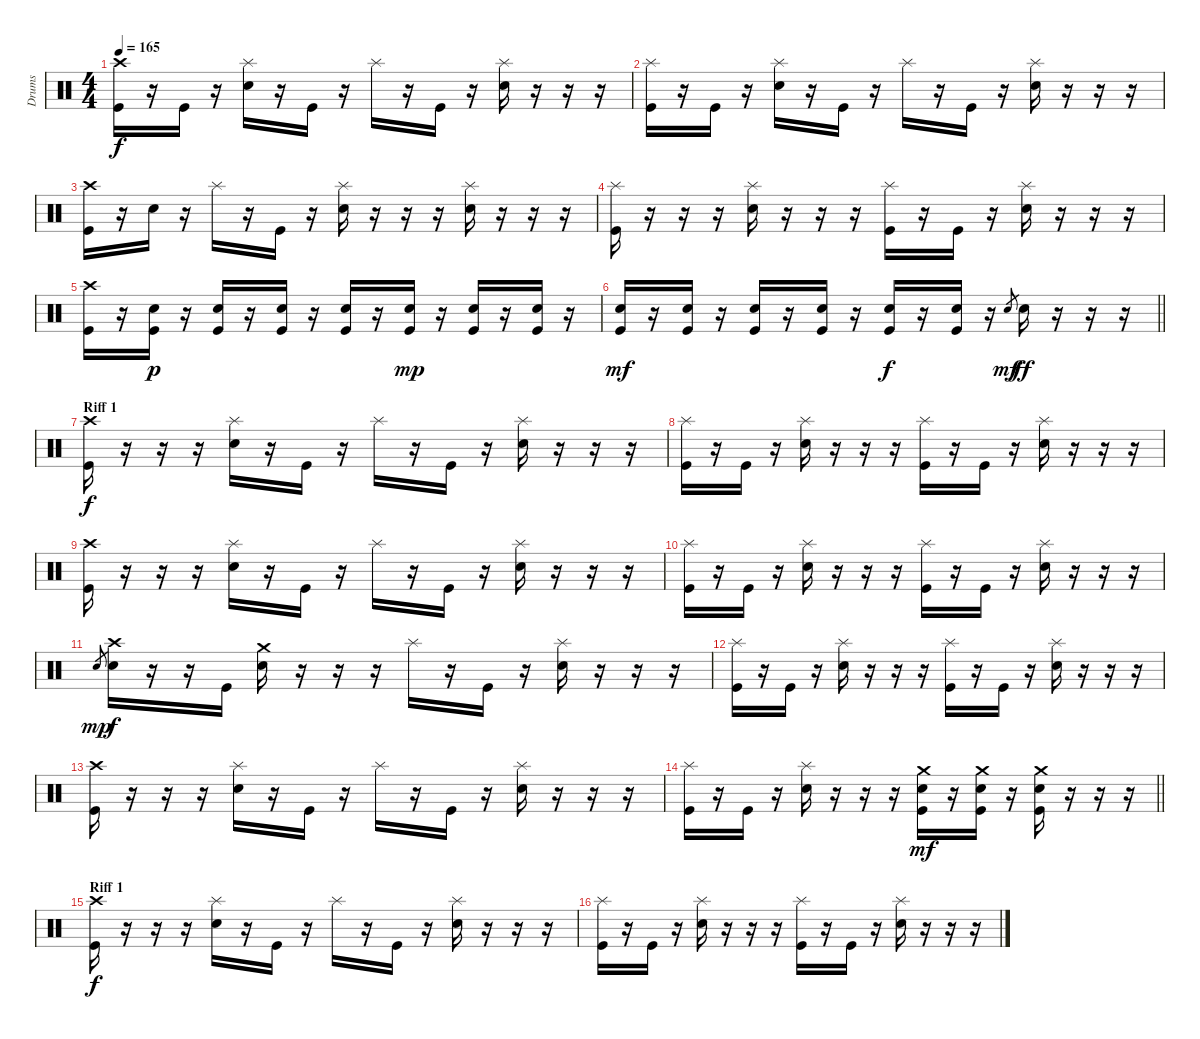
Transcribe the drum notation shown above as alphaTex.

\track ("Drums" "Drums") {instrument percussion}
\staff {score}
\articulation defaults
\ts (4 4)
\tempo 165
\clef neutral
\ks c
("Crash high (hit)" "Kick (hit)").16{dy f} r.16 "Kick (hit)".16 r.16 ("Splash (hit)" "Electric Snare (hit)").16 r.16 "Kick (hit)".16 r.16 "Splash (hit)".16 r.16 "Kick (hit)".16 r.16 ("Splash (hit)" "Electric Snare (hit)").16 r.16 r.16 r.16 |
("Splash (hit)" "Kick (hit)").16 r.16 "Kick (hit)".16 r.16 ("Splash (hit)" "Electric Snare (hit)").16 r.16 "Kick (hit)".16 r.16 "Splash (hit)".16 r.16 "Kick (hit)".16 r.16 ("Splash (hit)" "Electric Snare (hit)").16 r.16 r.16 r.16 |
("Crash high (hit)" "Kick (hit)").16 r.16 "Electric Snare (hit)".16 r.16 "Splash (hit)".16 r.16 "Kick (hit)".16 r.16 ("Splash (hit)" "Electric Snare (hit)").16 r.16 r.16 r.16 ("Splash (hit)" "Electric Snare (hit)").16 r.16 r.16 r.16 |
("Splash (hit)" "Kick (hit)").16 r.16 r.16 r.16 ("Splash (hit)" "Electric Snare (hit)").16 r.16 r.16 r.16 ("Splash (hit)" "Kick (hit)").16 r.16 "Kick (hit)".16 r.16 ("Splash (hit)" "Electric Snare (hit)").16 r.16 r.16 r.16 |
("Crash high (hit)" "Kick (hit)").16 r.16 ("Electric Snare (hit)" "Kick (hit)").16{dy p} r.16 ("Electric Snare (hit)" "Kick (hit)").16 r.16 ("Electric Snare (hit)" "Kick (hit)").16 r.16 ("Electric Snare (hit)" "Kick (hit)").16 r.16 ("Electric Snare (hit)" "Kick (hit)").16{dy mp} r.16 ("Electric Snare (hit)" "Kick (hit)").16 r.16 ("Electric Snare (hit)" "Kick (hit)").16 r.16 |
\barLineRight lightlight
("Electric Snare (hit)" "Kick (hit)").16{dy mf} r.16 ("Electric Snare (hit)" "Kick (hit)").16 r.16 ("Electric Snare (hit)" "Kick (hit)").16 r.16 ("Electric Snare (hit)" "Kick (hit)").16 r.16 ("Electric Snare (hit)" "Kick (hit)").16{dy f} r.16 ("Electric Snare (hit)" "Kick (hit)").16 r.16 "Snare (hit) 2".8{gr dy mf} "Electric Snare (hit)".16{dy ff} r.16 r.16 r.16 |
\section ("" "Riff 1")
("Crash high (hit)" "Kick (hit)").16{dy f} r.16 r.16 r.16 ("Splash (hit)" "Electric Snare (hit)").16 r.16 "Kick (hit)".16 r.16 "Splash (hit)".16 r.16 "Kick (hit)".16 r.16 ("Splash (hit)" "Electric Snare (hit)").16 r.16 r.16 r.16 |
("Splash (hit)" "Kick (hit)").16 r.16 "Kick (hit)".16 r.16 ("Splash (hit)" "Electric Snare (hit)").16 r.16 r.16 r.16 ("Splash (hit)" "Kick (hit)").16 r.16 "Kick (hit)".16 r.16 ("Splash (hit)" "Electric Snare (hit)").16 r.16 r.16 r.16 |
("Crash high (hit)" "Kick (hit)").16 r.16 r.16 r.16 ("Splash (hit)" "Electric Snare (hit)").16 r.16 "Kick (hit)".16 r.16 "Splash (hit)".16 r.16 "Kick (hit)".16 r.16 ("Splash (hit)" "Electric Snare (hit)").16 r.16 r.16 r.16 |
("Splash (hit)" "Kick (hit)").16 r.16 "Kick (hit)".16 r.16 ("Splash (hit)" "Electric Snare (hit)").16 r.16 r.16 r.16 ("Splash (hit)" "Kick (hit)").16 r.16 "Kick (hit)".16 r.16 ("Splash (hit)" "Electric Snare (hit)").16 r.16 r.16 r.16 |
"Electric Snare (hit)".8{gr dy mp} ("Crash high (hit)" "Electric Snare (hit)").16{dy f} r.16 r.16 "Kick (hit)".16 ("Crash medium (hit)" "Electric Snare (hit)").16 r.16 r.16 r.16 "Splash (hit)".16 r.16 "Kick (hit)".16 r.16 ("Splash (hit)" "Electric Snare (hit)").16 r.16 r.16 r.16 |
("Splash (hit)" "Kick (hit)").16 r.16 "Kick (hit)".16 r.16 ("Splash (hit)" "Electric Snare (hit)").16 r.16 r.16 r.16 ("Splash (hit)" "Kick (hit)").16 r.16 "Kick (hit)".16 r.16 ("Splash (hit)" "Electric Snare (hit)").16 r.16 r.16 r.16 |
("Crash high (hit)" "Kick (hit)").16 r.16 r.16 r.16 ("Splash (hit)" "Electric Snare (hit)").16 r.16 "Kick (hit)".16 r.16 "Splash (hit)".16 r.16 "Kick (hit)".16 r.16 ("Splash (hit)" "Electric Snare (hit)").16 r.16 r.16 r.16 |
\barLineRight lightlight
("Splash (hit)" "Kick (hit)").16 r.16 "Kick (hit)".16 r.16 ("Splash (hit)" "Electric Snare (hit)").16 r.16 r.16 r.16 ("Crash medium (hit)" "Electric Snare (hit)" "Kick (hit)").16{dy mf} r.16 ("Crash medium (hit)" "Electric Snare (hit)" "Kick (hit)").16 r.16 ("Crash medium (hit)" "Electric Snare (hit)" "Kick (hit)").16 r.16 r.16 r.16 |
\section ("" "Riff 1")
("Crash high (hit)" "Kick (hit)").16{dy f} r.16 r.16 r.16 ("Splash (hit)" "Electric Snare (hit)").16 r.16 "Kick (hit)".16 r.16 "Splash (hit)".16 r.16 "Kick (hit)".16 r.16 ("Splash (hit)" "Electric Snare (hit)").16 r.16 r.16 r.16 |
("Splash (hit)" "Kick (hit)").16 r.16 "Kick (hit)".16 r.16 ("Splash (hit)" "Electric Snare (hit)").16 r.16 r.16 r.16 ("Splash (hit)" "Kick (hit)").16 r.16 "Kick (hit)".16 r.16 ("Splash (hit)" "Electric Snare (hit)").16 r.16 r.16 r.16
